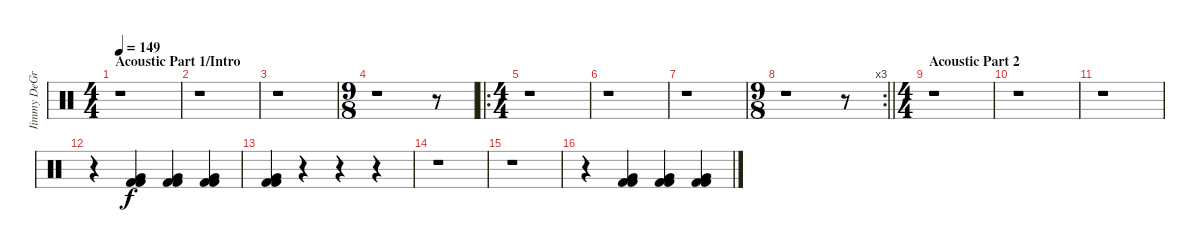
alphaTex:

\track ("Jimmy DeGrasso" "Jimmy DeGr") {instrument percussion}
\staff {score}
\articulation defaults
\ts (4 4)
\section ("" "Acoustic Part 1/Intro")
\tempo 149
\tempo 110
\tempo 149
\clef neutral
\ks c
r.1{dy f} |
r.1 |
r.1 |
\ts (9 8)
r.1 r.8 |
\ro
\ts (4 4)
r.1 |
r.1 |
r.1 |
\rc 3
\ts (9 8)
\barLineRight lightlight
r.1 r.8 |
\ts (4 4)
\section ("" "Acoustic Part 2")
r.1 |
r.1 |
r.1 |
r.4 ("Very Low Tom (hit)" "Kick (hit) 2" "Kick (hit) 2").4 ("Very Low Tom (hit)" "Kick (hit) 2" "Kick (hit) 2").4 ("Very Low Tom (hit)" "Kick (hit) 2" "Kick (hit) 2").4 |
("Very Low Tom (hit)" "Kick (hit) 2" "Kick (hit) 2").4 r.4 r.4 r.4 |
r.1 |
r.1 |
r.4 ("Very Low Tom (hit)" "Kick (hit) 2" "Kick (hit) 2").4 ("Very Low Tom (hit)" "Kick (hit) 2" "Kick (hit) 2").4 ("Very Low Tom (hit)" "Kick (hit) 2" "Kick (hit) 2").4
